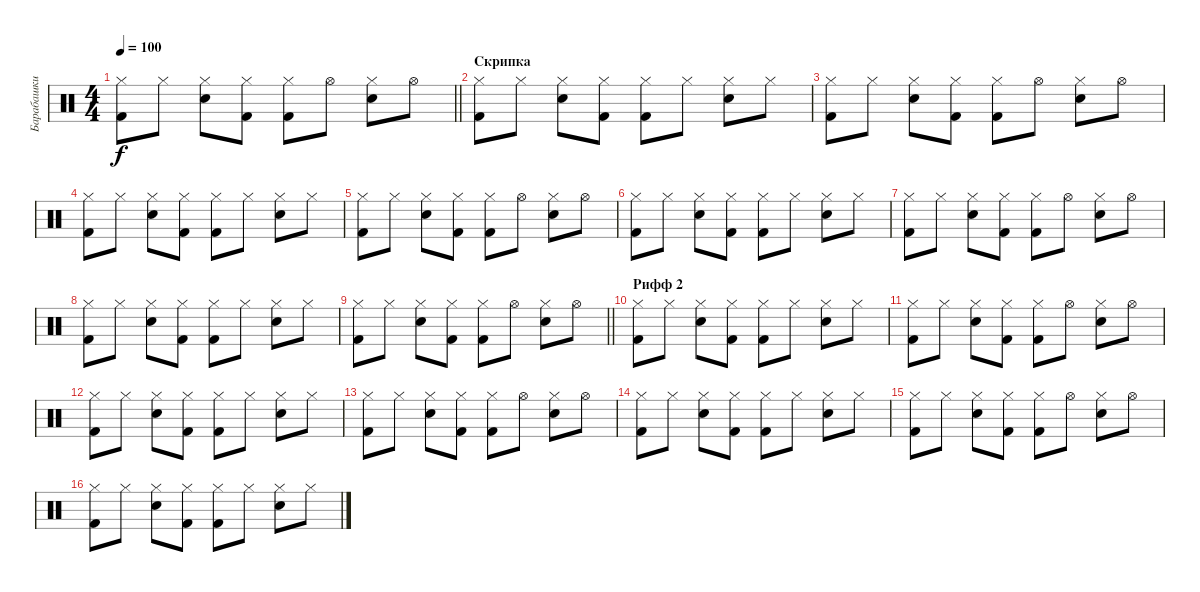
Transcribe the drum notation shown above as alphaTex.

\track ("Барабашки" "Барабашки") {instrument percussion}
\staff {score}
\articulation defaults
\ts (4 4)
\tempo 100
\clef neutral
\barLineRight lightlight
\ks c
("Hi-Hat (closed)" "Kick (hit) 2").8{dy f} "Hi-Hat (closed)".8 ("Hi-Hat (closed)" "Electric Snare (hit)").8 ("Hi-Hat (closed)" "Kick (hit) 2").8 ("Hi-Hat (closed)" "Kick (hit) 2").8 "Hi-Hat (open)".8 ("Hi-Hat (closed)" "Electric Snare (hit)").8 "Hi-Hat (open)".8 |
\section ("" "Скрипка")
("Hi-Hat (closed)" "Kick (hit) 2").8 "Hi-Hat (closed)".8 ("Hi-Hat (closed)" "Electric Snare (hit)").8 ("Hi-Hat (closed)" "Kick (hit) 2").8 ("Hi-Hat (closed)" "Kick (hit) 2").8 "Hi-Hat (closed)".8 ("Hi-Hat (closed)" "Electric Snare (hit)").8 "Hi-Hat (closed)".8 |
("Hi-Hat (closed)" "Kick (hit) 2").8 "Hi-Hat (closed)".8 ("Hi-Hat (closed)" "Electric Snare (hit)").8 ("Hi-Hat (closed)" "Kick (hit) 2").8 ("Hi-Hat (closed)" "Kick (hit) 2").8 "Hi-Hat (open)".8 ("Hi-Hat (closed)" "Electric Snare (hit)").8 "Hi-Hat (open)".8 |
("Hi-Hat (closed)" "Kick (hit) 2").8 "Hi-Hat (closed)".8 ("Hi-Hat (closed)" "Electric Snare (hit)").8 ("Hi-Hat (closed)" "Kick (hit) 2").8 ("Hi-Hat (closed)" "Kick (hit) 2").8 "Hi-Hat (closed)".8 ("Hi-Hat (closed)" "Electric Snare (hit)").8 "Hi-Hat (closed)".8 |
("Hi-Hat (closed)" "Kick (hit) 2").8 "Hi-Hat (closed)".8 ("Hi-Hat (closed)" "Electric Snare (hit)").8 ("Hi-Hat (closed)" "Kick (hit) 2").8 ("Hi-Hat (closed)" "Kick (hit) 2").8 "Hi-Hat (open)".8 ("Hi-Hat (closed)" "Electric Snare (hit)").8 "Hi-Hat (open)".8 |
("Hi-Hat (closed)" "Kick (hit) 2").8 "Hi-Hat (closed)".8 ("Hi-Hat (closed)" "Electric Snare (hit)").8 ("Hi-Hat (closed)" "Kick (hit) 2").8 ("Hi-Hat (closed)" "Kick (hit) 2").8 "Hi-Hat (closed)".8 ("Hi-Hat (closed)" "Electric Snare (hit)").8 "Hi-Hat (closed)".8 |
("Hi-Hat (closed)" "Kick (hit) 2").8 "Hi-Hat (closed)".8 ("Hi-Hat (closed)" "Electric Snare (hit)").8 ("Hi-Hat (closed)" "Kick (hit) 2").8 ("Hi-Hat (closed)" "Kick (hit) 2").8 "Hi-Hat (open)".8 ("Hi-Hat (closed)" "Electric Snare (hit)").8 "Hi-Hat (open)".8 |
("Hi-Hat (closed)" "Kick (hit) 2").8 "Hi-Hat (closed)".8 ("Hi-Hat (closed)" "Electric Snare (hit)").8 ("Hi-Hat (closed)" "Kick (hit) 2").8 ("Hi-Hat (closed)" "Kick (hit) 2").8 "Hi-Hat (closed)".8 ("Hi-Hat (closed)" "Electric Snare (hit)").8 "Hi-Hat (closed)".8 |
\barLineRight lightlight
("Hi-Hat (closed)" "Kick (hit) 2").8 "Hi-Hat (closed)".8 ("Hi-Hat (closed)" "Electric Snare (hit)").8 ("Hi-Hat (closed)" "Kick (hit) 2").8 ("Hi-Hat (closed)" "Kick (hit) 2").8 "Hi-Hat (open)".8 ("Hi-Hat (closed)" "Electric Snare (hit)").8 "Hi-Hat (open)".8 |
\section ("" "Рифф 2")
("Hi-Hat (closed)" "Kick (hit) 2").8 "Hi-Hat (closed)".8 ("Hi-Hat (closed)" "Electric Snare (hit)").8 ("Hi-Hat (closed)" "Kick (hit) 2").8 ("Hi-Hat (closed)" "Kick (hit) 2").8 "Hi-Hat (closed)".8 ("Hi-Hat (closed)" "Electric Snare (hit)").8 "Hi-Hat (closed)".8 |
("Hi-Hat (closed)" "Kick (hit) 2").8 "Hi-Hat (closed)".8 ("Hi-Hat (closed)" "Electric Snare (hit)").8 ("Hi-Hat (closed)" "Kick (hit) 2").8 ("Hi-Hat (closed)" "Kick (hit) 2").8 "Hi-Hat (open)".8 ("Hi-Hat (closed)" "Electric Snare (hit)").8 "Hi-Hat (open)".8 |
("Hi-Hat (closed)" "Kick (hit) 2").8 "Hi-Hat (closed)".8 ("Hi-Hat (closed)" "Electric Snare (hit)").8 ("Hi-Hat (closed)" "Kick (hit) 2").8 ("Hi-Hat (closed)" "Kick (hit) 2").8 "Hi-Hat (closed)".8 ("Hi-Hat (closed)" "Electric Snare (hit)").8 "Hi-Hat (closed)".8 |
("Hi-Hat (closed)" "Kick (hit) 2").8 "Hi-Hat (closed)".8 ("Hi-Hat (closed)" "Electric Snare (hit)").8 ("Hi-Hat (closed)" "Kick (hit) 2").8 ("Hi-Hat (closed)" "Kick (hit) 2").8 "Hi-Hat (open)".8 ("Hi-Hat (closed)" "Electric Snare (hit)").8 "Hi-Hat (open)".8 |
("Hi-Hat (closed)" "Kick (hit) 2").8 "Hi-Hat (closed)".8 ("Hi-Hat (closed)" "Electric Snare (hit)").8 ("Hi-Hat (closed)" "Kick (hit) 2").8 ("Hi-Hat (closed)" "Kick (hit) 2").8 "Hi-Hat (closed)".8 ("Hi-Hat (closed)" "Electric Snare (hit)").8 "Hi-Hat (closed)".8 |
("Hi-Hat (closed)" "Kick (hit) 2").8 "Hi-Hat (closed)".8 ("Hi-Hat (closed)" "Electric Snare (hit)").8 ("Hi-Hat (closed)" "Kick (hit) 2").8 ("Hi-Hat (closed)" "Kick (hit) 2").8 "Hi-Hat (open)".8 ("Hi-Hat (closed)" "Electric Snare (hit)").8 "Hi-Hat (open)".8 |
("Hi-Hat (closed)" "Kick (hit) 2").8 "Hi-Hat (closed)".8 ("Hi-Hat (closed)" "Electric Snare (hit)").8 ("Hi-Hat (closed)" "Kick (hit) 2").8 ("Hi-Hat (closed)" "Kick (hit) 2").8 "Hi-Hat (closed)".8 ("Hi-Hat (closed)" "Electric Snare (hit)").8 "Hi-Hat (closed)".8
